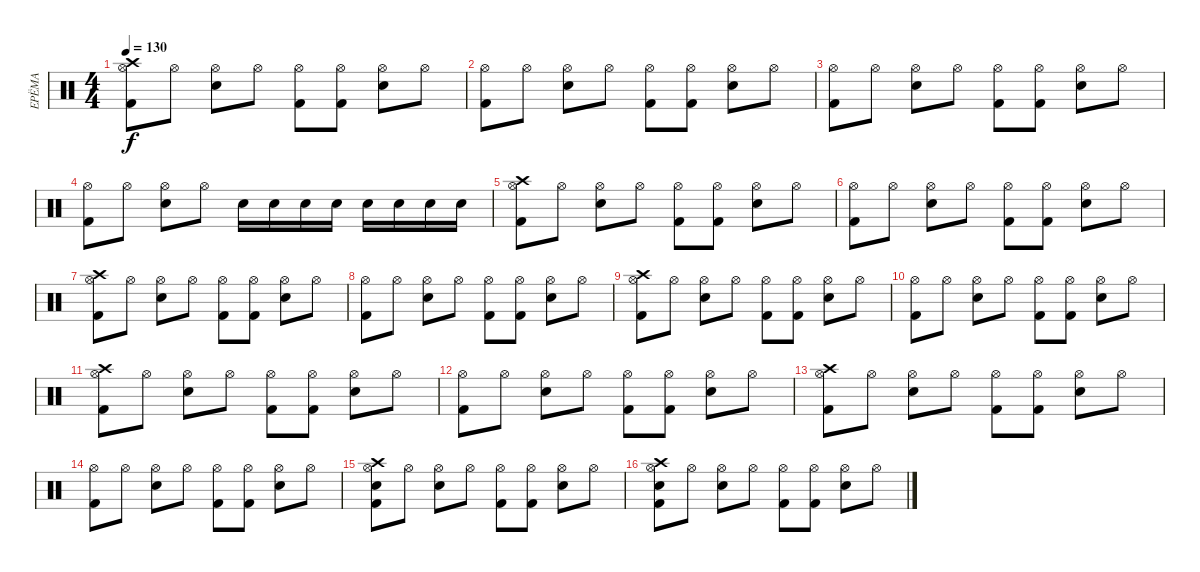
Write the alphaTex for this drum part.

\track ("ЕРЁМА" "ЕРЁМА") {instrument percussion}
\staff {score}
\articulation defaults
\ts (4 4)
\tempo 130
\clef neutral
\ks c
("Hi-Hat (open)" "Kick (hit) 2" "Crash high (hit)").8{dy f} "Hi-Hat (open)".8 ("Hi-Hat (open)" "Electric Snare (hit)").8 "Hi-Hat (open)".8 ("Hi-Hat (open)" "Kick (hit) 2").8 ("Hi-Hat (open)" "Kick (hit) 2").8 ("Hi-Hat (open)" "Electric Snare (hit)").8 "Hi-Hat (open)".8 |
("Hi-Hat (open)" "Kick (hit) 2").8 "Hi-Hat (open)".8 ("Hi-Hat (open)" "Electric Snare (hit)").8 "Hi-Hat (open)".8 ("Hi-Hat (open)" "Kick (hit) 2").8 ("Hi-Hat (open)" "Kick (hit) 2").8 ("Hi-Hat (open)" "Electric Snare (hit)").8 "Hi-Hat (open)".8 |
("Hi-Hat (open)" "Kick (hit) 2").8 "Hi-Hat (open)".8 ("Hi-Hat (open)" "Electric Snare (hit)").8 "Hi-Hat (open)".8 ("Hi-Hat (open)" "Kick (hit) 2").8 ("Hi-Hat (open)" "Kick (hit) 2").8 ("Hi-Hat (open)" "Electric Snare (hit)").8 "Hi-Hat (open)".8 |
("Hi-Hat (open)" "Kick (hit) 2").8 "Hi-Hat (open)".8 ("Hi-Hat (open)" "Electric Snare (hit)").8 "Hi-Hat (open)".8 "Electric Snare (hit)".16 "Electric Snare (hit)".16 "Electric Snare (hit)".16 "Electric Snare (hit)".16 "Electric Snare (hit)".16 "Electric Snare (hit)".16 "Electric Snare (hit)".16 "Electric Snare (hit)".16 |
("Hi-Hat (open)" "Kick (hit) 2" "Crash high (hit)").8 "Hi-Hat (open)".8 ("Hi-Hat (open)" "Electric Snare (hit)").8 "Hi-Hat (open)".8 ("Hi-Hat (open)" "Kick (hit) 2").8 ("Hi-Hat (open)" "Kick (hit) 2").8 ("Hi-Hat (open)" "Electric Snare (hit)").8 "Hi-Hat (open)".8 |
("Hi-Hat (open)" "Kick (hit) 2").8 "Hi-Hat (open)".8 ("Hi-Hat (open)" "Electric Snare (hit)").8 "Hi-Hat (open)".8 ("Hi-Hat (open)" "Kick (hit) 2").8 ("Hi-Hat (open)" "Kick (hit) 2").8 ("Hi-Hat (open)" "Electric Snare (hit)").8 "Hi-Hat (open)".8 |
("Hi-Hat (open)" "Kick (hit) 2" "Crash high (hit)").8 "Hi-Hat (open)".8 ("Hi-Hat (open)" "Electric Snare (hit)").8 "Hi-Hat (open)".8 ("Hi-Hat (open)" "Kick (hit) 2").8 ("Hi-Hat (open)" "Kick (hit) 2").8 ("Hi-Hat (open)" "Electric Snare (hit)").8 "Hi-Hat (open)".8 |
("Hi-Hat (open)" "Kick (hit) 2").8 "Hi-Hat (open)".8 ("Hi-Hat (open)" "Electric Snare (hit)").8 "Hi-Hat (open)".8 ("Hi-Hat (open)" "Kick (hit) 2").8 ("Hi-Hat (open)" "Kick (hit) 2").8 ("Hi-Hat (open)" "Electric Snare (hit)").8 "Hi-Hat (open)".8 |
("Hi-Hat (open)" "Kick (hit) 2" "Crash high (hit)").8 "Hi-Hat (open)".8 ("Hi-Hat (open)" "Electric Snare (hit)").8 "Hi-Hat (open)".8 ("Hi-Hat (open)" "Kick (hit) 2").8 ("Hi-Hat (open)" "Kick (hit) 2").8 ("Hi-Hat (open)" "Electric Snare (hit)").8 "Hi-Hat (open)".8 |
("Hi-Hat (open)" "Kick (hit) 2").8 "Hi-Hat (open)".8 ("Hi-Hat (open)" "Electric Snare (hit)").8 "Hi-Hat (open)".8 ("Hi-Hat (open)" "Kick (hit) 2").8 ("Hi-Hat (open)" "Kick (hit) 2").8 ("Hi-Hat (open)" "Electric Snare (hit)").8 "Hi-Hat (open)".8 |
("Hi-Hat (open)" "Kick (hit) 2" "Crash high (hit)").8 "Hi-Hat (open)".8 ("Hi-Hat (open)" "Electric Snare (hit)").8 "Hi-Hat (open)".8 ("Hi-Hat (open)" "Kick (hit) 2").8 ("Hi-Hat (open)" "Kick (hit) 2").8 ("Hi-Hat (open)" "Electric Snare (hit)").8 "Hi-Hat (open)".8 |
("Hi-Hat (open)" "Kick (hit) 2").8 "Hi-Hat (open)".8 ("Hi-Hat (open)" "Electric Snare (hit)").8 "Hi-Hat (open)".8 ("Hi-Hat (open)" "Kick (hit) 2").8 ("Hi-Hat (open)" "Kick (hit) 2").8 ("Hi-Hat (open)" "Electric Snare (hit)").8 "Hi-Hat (open)".8 |
("Hi-Hat (open)" "Kick (hit) 2" "Crash high (hit)").8 "Hi-Hat (open)".8 ("Hi-Hat (open)" "Electric Snare (hit)").8 "Hi-Hat (open)".8 ("Hi-Hat (open)" "Kick (hit) 2").8 ("Hi-Hat (open)" "Kick (hit) 2").8 ("Hi-Hat (open)" "Electric Snare (hit)").8 "Hi-Hat (open)".8 |
("Hi-Hat (open)" "Kick (hit) 2").8 "Hi-Hat (open)".8 ("Hi-Hat (open)" "Electric Snare (hit)").8 "Hi-Hat (open)".8 ("Hi-Hat (open)" "Kick (hit) 2").8 ("Hi-Hat (open)" "Kick (hit) 2").8 ("Hi-Hat (open)" "Electric Snare (hit)").8 "Hi-Hat (open)".8 |
("Hi-Hat (open)" "Kick (hit) 2" "Crash high (hit)" "Electric Snare (hit)").8 "Hi-Hat (open)".8 ("Hi-Hat (open)" "Electric Snare (hit)").8 "Hi-Hat (open)".8 ("Hi-Hat (open)" "Kick (hit) 2").8 ("Hi-Hat (open)" "Kick (hit) 2").8 ("Hi-Hat (open)" "Electric Snare (hit)").8 "Hi-Hat (open)".8 |
("Hi-Hat (open)" "Kick (hit) 2" "Crash high (hit)" "Electric Snare (hit)").8 "Hi-Hat (open)".8 ("Hi-Hat (open)" "Electric Snare (hit)").8 "Hi-Hat (open)".8 ("Hi-Hat (open)" "Kick (hit) 2").8 ("Hi-Hat (open)" "Kick (hit) 2").8 ("Hi-Hat (open)" "Electric Snare (hit)").8 "Hi-Hat (open)".8
